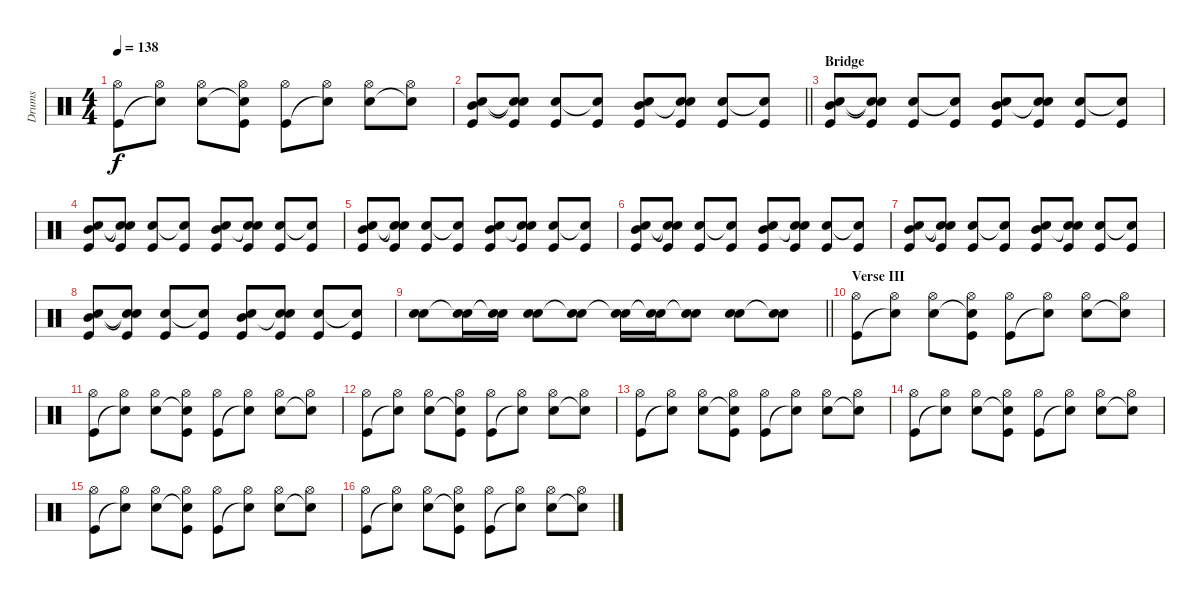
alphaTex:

\track ("Drums" "Drums") {instrument percussion}
\staff {score}
\articulation defaults
\ts (4 4)
\tempo 138
\clef neutral
\ks c
("Hi-Hat (open)" "Kick (hit)").8{dy f} ("Hi-Hat (open)" "Snare (hit)"{t}).8 ("Hi-Hat (open)" "Snare (hit) 2").8 ("Hi-Hat (open)" "Snare (hit)"{t} "Kick (hit)").8 ("Hi-Hat (open)" "Kick (hit)").8 ("Hi-Hat (open)" "Snare (hit)"{t}).8 ("Hi-Hat (open)" "Snare (hit) 2").8 ("Hi-Hat (open)" "Snare (hit)"{t}).8 |
\barLineRight lightlight
("Mid Tom (hit)" "Hand Clap (hit)" "Kick (hit)").8 ("Snare (hit)"{t} "Snare (hit)"{t} "Kick (hit)").8 ("Hand Clap (hit)" "Kick (hit)").8 ("Snare (hit)"{t} "Kick (hit)").8 ("Mid Tom (hit)" "Hand Clap (hit)" "Kick (hit)").8 ("Snare (hit)"{t} "Hand Clap (hit)" "Kick (hit)").8 ("Hand Clap (hit)" "Kick (hit)").8 ("Snare (hit)"{t} "Kick (hit)").8 |
\section ("" "Bridge")
("Mid Tom (hit)" "Hand Clap (hit)" "Kick (hit)").8 ("Snare (hit)"{t} "Snare (hit)"{t} "Kick (hit)").8 ("Hand Clap (hit)" "Kick (hit)").8 ("Snare (hit)"{t} "Kick (hit)").8 ("Mid Tom (hit)" "Hand Clap (hit)" "Kick (hit)").8 ("Snare (hit)"{t} "Hand Clap (hit)" "Kick (hit)").8 ("Hand Clap (hit)" "Kick (hit)").8 ("Snare (hit)"{t} "Kick (hit)").8 |
("Mid Tom (hit)" "Hand Clap (hit)" "Kick (hit)").8 ("Snare (hit)"{t} "Snare (hit)"{t} "Kick (hit)").8 ("Hand Clap (hit)" "Kick (hit)").8 ("Snare (hit)"{t} "Kick (hit)").8 ("Mid Tom (hit)" "Hand Clap (hit)" "Kick (hit)").8 ("Snare (hit)"{t} "Hand Clap (hit)" "Kick (hit)").8 ("Hand Clap (hit)" "Kick (hit)").8 ("Snare (hit)"{t} "Kick (hit)").8 |
("Mid Tom (hit)" "Hand Clap (hit)" "Kick (hit)").8 ("Snare (hit)"{t} "Snare (hit)"{t} "Kick (hit)").8 ("Hand Clap (hit)" "Kick (hit)").8 ("Snare (hit)"{t} "Kick (hit)").8 ("Mid Tom (hit)" "Hand Clap (hit)" "Kick (hit)").8 ("Snare (hit)"{t} "Hand Clap (hit)" "Kick (hit)").8 ("Hand Clap (hit)" "Kick (hit)").8 ("Snare (hit)"{t} "Kick (hit)").8 |
("Mid Tom (hit)" "Hand Clap (hit)" "Kick (hit)").8 ("Snare (hit)"{t} "Snare (hit)"{t} "Kick (hit)").8 ("Hand Clap (hit)" "Kick (hit)").8 ("Snare (hit)"{t} "Kick (hit)").8 ("Mid Tom (hit)" "Hand Clap (hit)" "Kick (hit)").8 ("Snare (hit)"{t} "Hand Clap (hit)" "Kick (hit)").8 ("Hand Clap (hit)" "Kick (hit)").8 ("Snare (hit)"{t} "Kick (hit)").8 |
("Mid Tom (hit)" "Hand Clap (hit)" "Kick (hit)").8 ("Snare (hit)"{t} "Snare (hit)"{t} "Kick (hit)").8 ("Hand Clap (hit)" "Kick (hit)").8 ("Snare (hit)"{t} "Kick (hit)").8 ("Mid Tom (hit)" "Hand Clap (hit)" "Kick (hit)").8 ("Snare (hit)"{t} "Hand Clap (hit)" "Kick (hit)").8 ("Hand Clap (hit)" "Kick (hit)").8 ("Snare (hit)"{t} "Kick (hit)").8 |
("Mid Tom (hit)" "Hand Clap (hit)" "Kick (hit)").8 ("Snare (hit)"{t} "Snare (hit)"{t} "Kick (hit)").8 ("Hand Clap (hit)" "Kick (hit)").8 ("Snare (hit)"{t} "Kick (hit)").8 ("Mid Tom (hit)" "Hand Clap (hit)" "Kick (hit)").8 ("Snare (hit)"{t} "Hand Clap (hit)" "Kick (hit)").8 ("Hand Clap (hit)" "Kick (hit)").8 ("Snare (hit)"{t} "Kick (hit)").8 |
\barLineRight lightlight
("Hand Clap (hit)" "Snare (hit) 2").8 ("Snare (hit)"{t} "Snare (hit) 2").16 ("Snare (hit)"{t} "Snare (hit) 2").16 ("Hand Clap (hit)" "Snare (hit) 2").8 ("Hand Clap (hit)"{t} "Snare (hit) 2").8 ("Hand Clap (hit)" "Snare (hit) 2"{t}).16 ("Snare (hit)"{t} "Snare (hit) 2").16 ("Hand Clap (hit)"{t} "Snare (hit) 2").8 ("Hand Clap (hit)" "Snare (hit) 2").8 ("Hand Clap (hit)"{t} "Snare (hit) 2").8 |
\section ("" "Verse III")
("Hi-Hat (open)" "Kick (hit)").8 ("Hi-Hat (open)" "Snare (hit)"{t}).8 ("Hi-Hat (open)" "Snare (hit) 2").8 ("Hi-Hat (open)" "Snare (hit)"{t} "Kick (hit)").8 ("Hi-Hat (open)" "Kick (hit)").8 ("Hi-Hat (open)" "Snare (hit)"{t}).8 ("Hi-Hat (open)" "Snare (hit) 2").8 ("Hi-Hat (open)" "Snare (hit)"{t}).8 |
("Hi-Hat (open)" "Kick (hit)").8 ("Hi-Hat (open)" "Snare (hit)"{t}).8 ("Hi-Hat (open)" "Snare (hit) 2").8 ("Hi-Hat (open)" "Snare (hit)"{t} "Kick (hit)").8 ("Hi-Hat (open)" "Kick (hit)").8 ("Hi-Hat (open)" "Snare (hit)"{t}).8 ("Hi-Hat (open)" "Snare (hit) 2").8 ("Hi-Hat (open)" "Snare (hit)"{t}).8 |
("Hi-Hat (open)" "Kick (hit)").8 ("Hi-Hat (open)" "Snare (hit)"{t}).8 ("Hi-Hat (open)" "Snare (hit) 2").8 ("Hi-Hat (open)" "Snare (hit)"{t} "Kick (hit)").8 ("Hi-Hat (open)" "Kick (hit)").8 ("Hi-Hat (open)" "Snare (hit)"{t}).8 ("Hi-Hat (open)" "Snare (hit) 2").8 ("Hi-Hat (open)" "Snare (hit)"{t}).8 |
("Hi-Hat (open)" "Kick (hit)").8 ("Hi-Hat (open)" "Snare (hit)"{t}).8 ("Hi-Hat (open)" "Snare (hit) 2").8 ("Hi-Hat (open)" "Snare (hit)"{t} "Kick (hit)").8 ("Hi-Hat (open)" "Kick (hit)").8 ("Hi-Hat (open)" "Snare (hit)"{t}).8 ("Hi-Hat (open)" "Snare (hit) 2").8 ("Hi-Hat (open)" "Snare (hit)"{t}).8 |
("Hi-Hat (open)" "Kick (hit)").8 ("Hi-Hat (open)" "Snare (hit)"{t}).8 ("Hi-Hat (open)" "Snare (hit) 2").8 ("Hi-Hat (open)" "Snare (hit)"{t} "Kick (hit)").8 ("Hi-Hat (open)" "Kick (hit)").8 ("Hi-Hat (open)" "Snare (hit)"{t}).8 ("Hi-Hat (open)" "Snare (hit) 2").8 ("Hi-Hat (open)" "Snare (hit)"{t}).8 |
("Hi-Hat (open)" "Kick (hit)").8 ("Hi-Hat (open)" "Snare (hit)"{t}).8 ("Hi-Hat (open)" "Snare (hit) 2").8 ("Hi-Hat (open)" "Snare (hit)"{t} "Kick (hit)").8 ("Hi-Hat (open)" "Kick (hit)").8 ("Hi-Hat (open)" "Snare (hit)"{t}).8 ("Hi-Hat (open)" "Snare (hit) 2").8 ("Hi-Hat (open)" "Snare (hit)"{t}).8 |
("Hi-Hat (open)" "Kick (hit)").8 ("Hi-Hat (open)" "Snare (hit)"{t}).8 ("Hi-Hat (open)" "Snare (hit) 2").8 ("Hi-Hat (open)" "Snare (hit)"{t} "Kick (hit)").8 ("Hi-Hat (open)" "Kick (hit)").8 ("Hi-Hat (open)" "Snare (hit)"{t}).8 ("Hi-Hat (open)" "Snare (hit) 2").8 ("Hi-Hat (open)" "Snare (hit)"{t}).8
